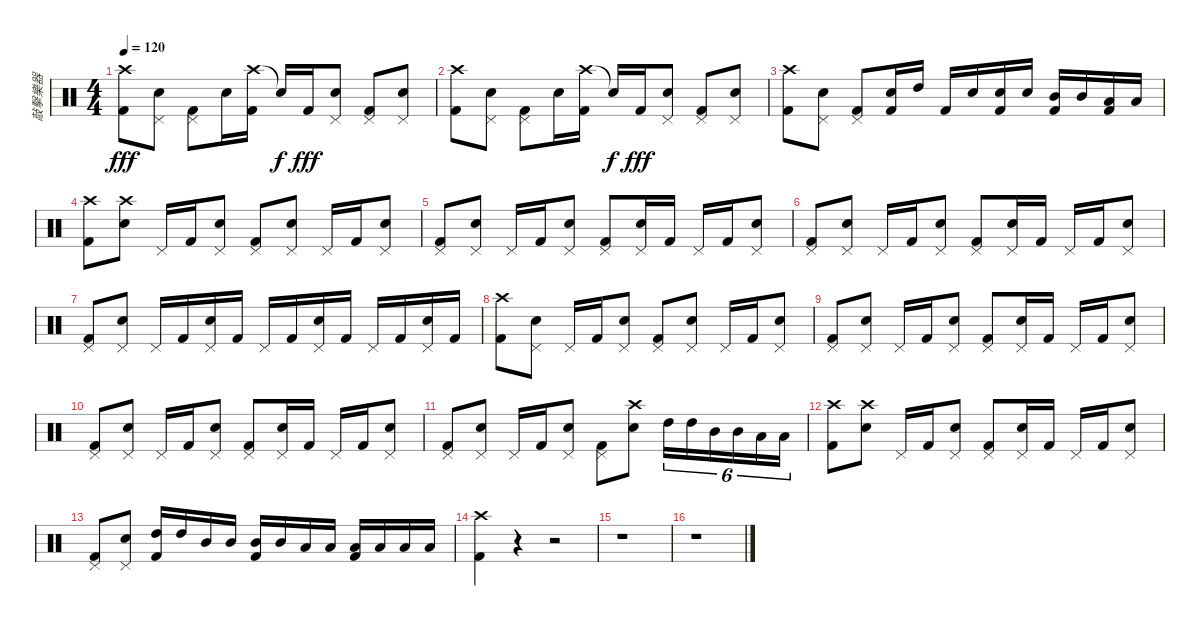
\track ("敲擊樂器" "敲擊樂器") {instrument percussion}
\staff {score}
\articulation defaults
\ts (4 4)
\tempo 120
\clef neutral
\ks c
("Crash high (hit)" "Kick (hit) 2").8{dy fff} ("Pedal Hi-Hat (hit)" "Snare (hit) 2").8 ("Pedal Hi-Hat (hit)" "Kick (hit) 2").8 "Snare (hit) 2".16 ("Crash high (hit)" "Kick (hit) 2").16 "Snare (hit)"{t}.16{dy f} "Kick (hit) 2".16{dy fff} ("Pedal Hi-Hat (hit)" "Snare (hit) 2").8 ("Pedal Hi-Hat (hit)" "Kick (hit) 2").8 ("Pedal Hi-Hat (hit)" "Snare (hit) 2").8 |
("Crash high (hit)" "Kick (hit) 2").8 ("Pedal Hi-Hat (hit)" "Snare (hit) 2").8 ("Pedal Hi-Hat (hit)" "Kick (hit) 2").8 "Snare (hit) 2".16 ("Crash high (hit)" "Kick (hit) 2").16 "Snare (hit)"{t}.16{dy f} "Kick (hit) 2".16{dy fff} ("Pedal Hi-Hat (hit)" "Snare (hit) 2").8 ("Pedal Hi-Hat (hit)" "Kick (hit) 2").8 ("Pedal Hi-Hat (hit)" "Snare (hit) 2").8 |
("Crash high (hit)" "Kick (hit) 2").8 ("Pedal Hi-Hat (hit)" "Snare (hit) 2").8 ("Pedal Hi-Hat (hit)" "Kick (hit) 2").8 ("Snare (hit) 2" "Kick (hit) 2").16 "High Tom (hit)".16 "Kick (hit) 2".16 "Snare (hit) 2".16 ("Snare (hit) 2" "Kick (hit) 2").16 "Snare (hit) 2".16 ("Mid Tom (hit)" "Kick (hit) 2").16 "Mid Tom (hit)".16 ("Low Tom (hit)" "Kick (hit) 2").16 "Low Tom (hit)".16 |
("Crash high (hit)" "Kick (hit) 2").8 ("Crash high (hit)" "Snare (hit) 2").8 "Pedal Hi-Hat (hit)".16 "Kick (hit) 2".16 ("Pedal Hi-Hat (hit)" "Snare (hit) 2").8 ("Pedal Hi-Hat (hit)" "Kick (hit) 2").8 ("Pedal Hi-Hat (hit)" "Snare (hit) 2").8 "Pedal Hi-Hat (hit)".16 "Kick (hit) 2".16 ("Pedal Hi-Hat (hit)" "Snare (hit) 2").8 |
("Pedal Hi-Hat (hit)" "Kick (hit) 2").8 ("Pedal Hi-Hat (hit)" "Snare (hit) 2").8 "Pedal Hi-Hat (hit)".16 "Kick (hit) 2".16 ("Pedal Hi-Hat (hit)" "Snare (hit) 2").8 ("Pedal Hi-Hat (hit)" "Kick (hit) 2").8 ("Pedal Hi-Hat (hit)" "Snare (hit) 2").16 "Kick (hit) 2".16 "Pedal Hi-Hat (hit)".16 "Kick (hit) 2".16 ("Pedal Hi-Hat (hit)" "Snare (hit) 2").8 |
("Pedal Hi-Hat (hit)" "Kick (hit) 2").8 ("Pedal Hi-Hat (hit)" "Snare (hit) 2").8 "Pedal Hi-Hat (hit)".16 "Kick (hit) 2".16 ("Pedal Hi-Hat (hit)" "Snare (hit) 2").8 ("Pedal Hi-Hat (hit)" "Kick (hit) 2").8 ("Pedal Hi-Hat (hit)" "Snare (hit) 2").16 "Kick (hit) 2".16 "Pedal Hi-Hat (hit)".16 "Kick (hit) 2".16 ("Pedal Hi-Hat (hit)" "Snare (hit) 2").8 |
("Pedal Hi-Hat (hit)" "Kick (hit) 2").8 ("Pedal Hi-Hat (hit)" "Snare (hit) 2").8 "Pedal Hi-Hat (hit)".16 "Kick (hit) 2".16 ("Pedal Hi-Hat (hit)" "Snare (hit) 2").16 "Kick (hit) 2".16 "Pedal Hi-Hat (hit)".16 "Kick (hit) 2".16 ("Pedal Hi-Hat (hit)" "Snare (hit) 2").16 "Kick (hit) 2".16 "Pedal Hi-Hat (hit)".16 "Kick (hit) 2".16 ("Pedal Hi-Hat (hit)" "Snare (hit) 2").16 "Kick (hit) 2".16 |
("Crash high (hit)" "Kick (hit) 2").8 ("Pedal Hi-Hat (hit)" "Snare (hit) 2").8 "Pedal Hi-Hat (hit)".16 "Kick (hit) 2".16 ("Pedal Hi-Hat (hit)" "Snare (hit) 2").8 ("Pedal Hi-Hat (hit)" "Kick (hit) 2").8 ("Pedal Hi-Hat (hit)" "Snare (hit) 2").8 "Pedal Hi-Hat (hit)".16 "Kick (hit) 2".16 ("Pedal Hi-Hat (hit)" "Snare (hit) 2").8 |
("Pedal Hi-Hat (hit)" "Kick (hit) 2").8 ("Pedal Hi-Hat (hit)" "Snare (hit) 2").8 "Pedal Hi-Hat (hit)".16 "Kick (hit) 2".16 ("Pedal Hi-Hat (hit)" "Snare (hit) 2").8 ("Pedal Hi-Hat (hit)" "Kick (hit) 2").8 ("Pedal Hi-Hat (hit)" "Snare (hit) 2").16 "Kick (hit) 2".16 "Pedal Hi-Hat (hit)".16 "Kick (hit) 2".16 ("Pedal Hi-Hat (hit)" "Snare (hit) 2").8 |
("Pedal Hi-Hat (hit)" "Kick (hit) 2").8 ("Pedal Hi-Hat (hit)" "Snare (hit) 2").8 "Pedal Hi-Hat (hit)".16 "Kick (hit) 2".16 ("Pedal Hi-Hat (hit)" "Snare (hit) 2").8 ("Pedal Hi-Hat (hit)" "Kick (hit) 2").8 ("Pedal Hi-Hat (hit)" "Snare (hit) 2").16 "Kick (hit) 2".16 "Pedal Hi-Hat (hit)".16 "Kick (hit) 2".16 ("Pedal Hi-Hat (hit)" "Snare (hit) 2").8 |
("Pedal Hi-Hat (hit)" "Kick (hit) 2").8 ("Pedal Hi-Hat (hit)" "Snare (hit) 2").8 "Pedal Hi-Hat (hit)".16 "Kick (hit) 2".16 ("Pedal Hi-Hat (hit)" "Snare (hit) 2").8 ("Pedal Hi-Hat (hit)" "Kick (hit) 2").8 ("Crash high (hit)" "Snare (hit) 2").8 "High Tom (hit)".16{tu (6 4)} "High Tom (hit)".16{tu (6 4)} "Mid Tom (hit)".16{tu (6 4)} "Mid Tom (hit)".16{tu (6 4)} "Low Tom (hit)".16{tu (6 4)} "Low Tom (hit)".16{tu (6 4)} |
("Crash high (hit)" "Kick (hit) 2").8 ("Crash high (hit)" "Snare (hit) 2").8 "Pedal Hi-Hat (hit)".16 "Kick (hit) 2".16 ("Pedal Hi-Hat (hit)" "Snare (hit) 2").8 ("Pedal Hi-Hat (hit)" "Kick (hit) 2").8 ("Pedal Hi-Hat (hit)" "Snare (hit) 2").16 "Kick (hit) 2".16 "Pedal Hi-Hat (hit)".16 "Kick (hit) 2".16 ("Pedal Hi-Hat (hit)" "Snare (hit) 2").8 |
("Pedal Hi-Hat (hit)" "Kick (hit) 2").8 ("Pedal Hi-Hat (hit)" "Snare (hit) 2").8 ("High Tom (hit)" "Kick (hit) 2").16 "High Tom (hit)".16 "Mid Tom (hit)".16 "Mid Tom (hit)".16 ("Mid Tom (hit)" "Kick (hit) 2").16 "Mid Tom (hit)".16 "Low Tom (hit)".16 "Low Tom (hit)".16 ("Low Floor Tom (hit)" "Kick (hit) 2").16 "Low Floor Tom (hit)".16 "Low Floor Tom (hit)".16 "Low Floor Tom (hit)".16 |
("Crash high (hit)" "Kick (hit) 2").4 r.4 r.2 |
r.1 |
r.1
